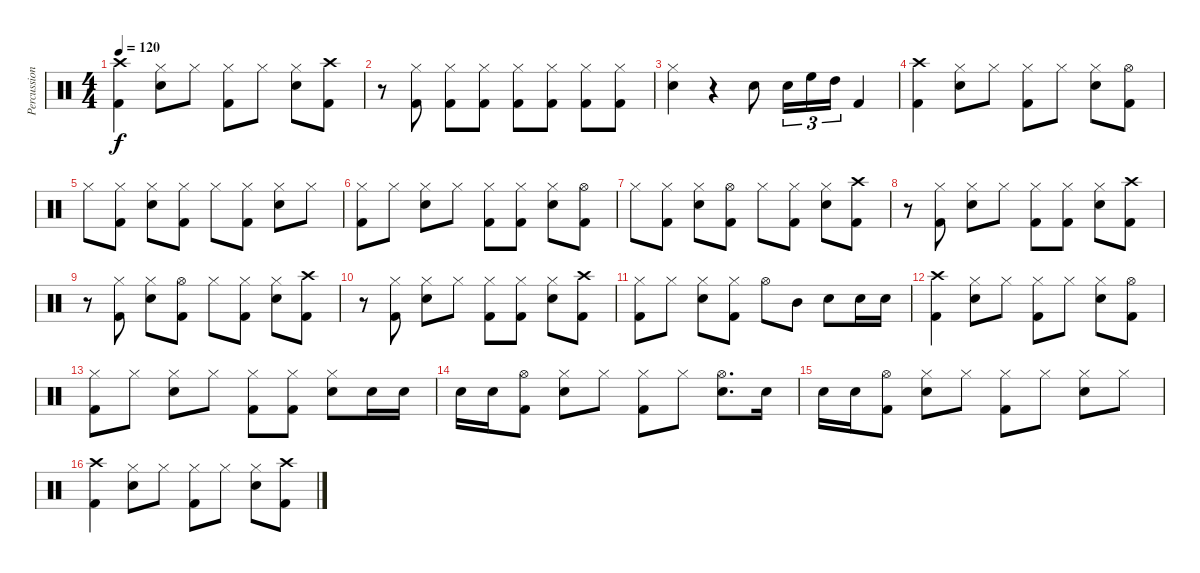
\track ("Percussion" "Percussion") {instrument percussion}
\staff {score}
\articulation defaults
\ts (4 4)
\tempo 120
\clef neutral
\ks c
("Crash high (hit)" "Kick (hit) 2").4{dy f} ("Hi-Hat (closed)" "Snare (hit) 2").8 "Hi-Hat (closed)".8 ("Hi-Hat (closed)" "Kick (hit) 2").8 "Hi-Hat (closed)".8 ("Hi-Hat (closed)" "Snare (hit) 2").8 ("Crash high (hit)" "Kick (hit) 2").8 |
r.8 ("Hi-Hat (closed)" "Kick (hit) 2").8 ("Hi-Hat (closed)" "Kick (hit) 2").8 ("Hi-Hat (closed)" "Kick (hit) 2").8 ("Hi-Hat (closed)" "Kick (hit) 2").8 ("Hi-Hat (closed)" "Kick (hit) 2").8 ("Hi-Hat (closed)" "Kick (hit) 2").8 ("Hi-Hat (closed)" "Kick (hit) 2").8 |
("Hi-Hat (closed)" "Snare (hit) 2").4 r.4 "Snare (hit) 2".8 "Snare (hit) 2".16{tu (3 2)} "High Floor Tom (hit)".16{tu (3 2)} "High Tom (hit)".16{tu (3 2)} "Kick (hit) 2".4 |
("Crash high (hit)" "Kick (hit) 2").4 ("Hi-Hat (closed)" "Snare (hit) 2").8 "Hi-Hat (closed)".8 ("Hi-Hat (closed)" "Kick (hit) 2").8 "Hi-Hat (closed)".8 ("Hi-Hat (closed)" "Snare (hit) 2").8 ("Hi-Hat (open)" "Kick (hit) 2").8 |
"Hi-Hat (closed)".8 ("Hi-Hat (closed)" "Kick (hit) 2").8 ("Hi-Hat (closed)" "Snare (hit) 2").8 ("Hi-Hat (closed)" "Kick (hit) 2").8 "Hi-Hat (closed)".8 ("Hi-Hat (closed)" "Kick (hit) 2").8 ("Hi-Hat (closed)" "Snare (hit) 2").8 "Hi-Hat (closed)".8 |
("Hi-Hat (closed)" "Kick (hit) 2").8 "Hi-Hat (closed)".8 ("Hi-Hat (closed)" "Snare (hit) 2").8 "Hi-Hat (closed)".8 ("Hi-Hat (closed)" "Kick (hit) 2").8 ("Hi-Hat (closed)" "Kick (hit) 2").8 ("Hi-Hat (closed)" "Snare (hit) 2").8 ("Hi-Hat (open)" "Kick (hit) 2").8 |
"Hi-Hat (closed)".8 ("Hi-Hat (closed)" "Kick (hit) 2").8 ("Hi-Hat (closed)" "Snare (hit) 2").8 ("Hi-Hat (open)" "Kick (hit) 2").8 "Hi-Hat (closed)".8 ("Hi-Hat (closed)" "Kick (hit) 2").8 ("Hi-Hat (closed)" "Snare (hit) 2").8 ("Crash high (hit)" "Kick (hit) 2").8 |
r.8 ("Hi-Hat (closed)" "Kick (hit) 2").8 ("Hi-Hat (closed)" "Snare (hit) 2").8 "Hi-Hat (closed)".8 ("Hi-Hat (closed)" "Kick (hit) 2").8 ("Hi-Hat (closed)" "Kick (hit) 2").8 ("Hi-Hat (closed)" "Snare (hit) 2").8 ("Crash high (hit)" "Kick (hit) 2").8 |
r.8 ("Hi-Hat (closed)" "Kick (hit) 2").8 ("Hi-Hat (closed)" "Snare (hit) 2").8 ("Hi-Hat (open)" "Kick (hit) 2").8 "Hi-Hat (closed)".8 ("Hi-Hat (closed)" "Kick (hit) 2").8 ("Hi-Hat (closed)" "Snare (hit) 2").8 ("Crash high (hit)" "Kick (hit) 2").8 |
r.8 ("Hi-Hat (closed)" "Kick (hit) 2").8 ("Hi-Hat (closed)" "Snare (hit) 2").8 "Hi-Hat (closed)".8 ("Hi-Hat (closed)" "Kick (hit) 2").8 ("Hi-Hat (closed)" "Kick (hit) 2").8 ("Hi-Hat (closed)" "Snare (hit) 2").8 ("Crash high (hit)" "Kick (hit) 2").8 |
("Hi-Hat (closed)" "Kick (hit) 2").8 "Hi-Hat (closed)".8 ("Hi-Hat (closed)" "Snare (hit) 2").8 ("Hi-Hat (closed)" "Kick (hit) 2").8 "Hi-Hat (open)".8 "Mid Tom (hit)".8 "Snare (hit) 2".8 "Snare (hit) 2".16 "Snare (hit) 2".16 |
("Crash high (hit)" "Kick (hit) 2").4 ("Hi-Hat (closed)" "Snare (hit) 2").8 "Hi-Hat (closed)".8 ("Hi-Hat (closed)" "Kick (hit) 2").8 "Hi-Hat (closed)".8 ("Hi-Hat (closed)" "Snare (hit) 2").8 ("Hi-Hat (open)" "Kick (hit) 2").8 |
("Hi-Hat (closed)" "Kick (hit) 2").8 "Hi-Hat (closed)".8 ("Hi-Hat (closed)" "Snare (hit) 2").8 "Hi-Hat (closed)".8 ("Hi-Hat (closed)" "Kick (hit) 2").8 ("Hi-Hat (closed)" "Kick (hit) 2").8 ("Hi-Hat (closed)" "Snare (hit) 2").8 "Snare (hit) 2".16 "Snare (hit) 2".16 |
"Snare (hit) 2".16 "Snare (hit) 2".16 ("Hi-Hat (open)" "Kick (hit) 2").8 ("Hi-Hat (closed)" "Snare (hit) 2").8 "Hi-Hat (closed)".8 ("Hi-Hat (closed)" "Kick (hit) 2").8 "Hi-Hat (closed)".8 ("Hi-Hat (open)" "Snare (hit) 2").8{d} "Snare (hit) 2".16 |
"Snare (hit) 2".16 "Snare (hit) 2".16 ("Hi-Hat (open)" "Kick (hit) 2").8 ("Hi-Hat (closed)" "Snare (hit) 2").8 "Hi-Hat (closed)".8 ("Hi-Hat (closed)" "Kick (hit) 2").8 "Hi-Hat (closed)".8 ("Hi-Hat (closed)" "Snare (hit) 2").8 "Hi-Hat (closed)".8 |
("Crash high (hit)" "Kick (hit) 2").4 ("Hi-Hat (closed)" "Snare (hit) 2").8 "Hi-Hat (closed)".8 ("Hi-Hat (closed)" "Kick (hit) 2").8 "Hi-Hat (closed)".8 ("Hi-Hat (closed)" "Snare (hit) 2").8 ("Crash high (hit)" "Kick (hit) 2").8
